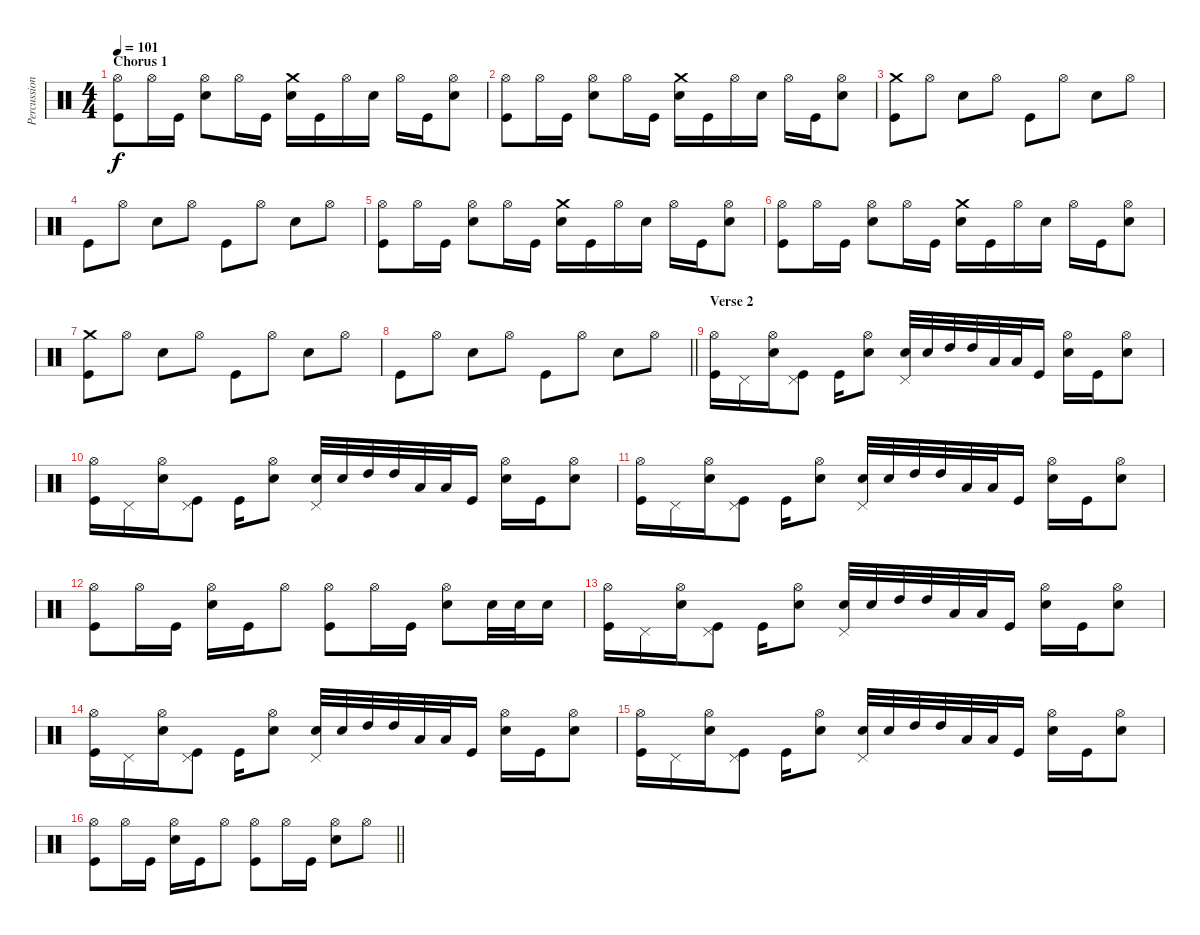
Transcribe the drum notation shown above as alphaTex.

\track ("Percussion" "Percussion") {instrument percussion}
\staff {score}
\articulation defaults
\ts (4 4)
\section ("" "Chorus 1")
\tempo 101
\clef neutral
\ks c
("Hi-Hat (open)" "Kick (hit)").8{dy f} "Hi-Hat (open)".16 "Kick (hit)".16 ("Hi-Hat (open)" "Snare (hit) 2").8 "Hi-Hat (open)".16 "Kick (hit)".16 ("Crash medium (hit)" "Snare (hit) 2").16 "Kick (hit)".16 "Hi-Hat (open)".16 "Snare (hit) 2".16 "Hi-Hat (open)".16 "Kick (hit)".16 ("Hi-Hat (open)" "Snare (hit) 2").8 |
("Hi-Hat (open)" "Kick (hit)").8 "Hi-Hat (open)".16 "Kick (hit)".16 ("Hi-Hat (open)" "Snare (hit) 2").8 "Hi-Hat (open)".16 "Kick (hit)".16 ("Crash medium (hit)" "Snare (hit) 2").16 "Kick (hit)".16 "Hi-Hat (open)".16 "Snare (hit) 2".16 "Hi-Hat (open)".16 "Kick (hit)".16 ("Hi-Hat (open)" "Snare (hit) 2").8 |
("Crash medium (hit)" "Kick (hit)").8 "Hi-Hat (open)".8 "Snare (hit) 2".8 "Hi-Hat (open)".8 "Kick (hit)".8 "Hi-Hat (open)".8 "Snare (hit) 2".8 "Hi-Hat (open)".8 |
"Kick (hit)".8 "Hi-Hat (open)".8 "Snare (hit) 2".8 "Hi-Hat (open)".8 "Kick (hit)".8 "Hi-Hat (open)".8 "Snare (hit) 2".8 "Hi-Hat (open)".8 |
("Hi-Hat (open)" "Kick (hit)").8 "Hi-Hat (open)".16 "Kick (hit)".16 ("Hi-Hat (open)" "Snare (hit) 2").8 "Hi-Hat (open)".16 "Kick (hit)".16 ("Crash medium (hit)" "Snare (hit) 2").16 "Kick (hit)".16 "Hi-Hat (open)".16 "Snare (hit) 2".16 "Hi-Hat (open)".16 "Kick (hit)".16 ("Hi-Hat (open)" "Snare (hit) 2").8 |
("Hi-Hat (open)" "Kick (hit)").8 "Hi-Hat (open)".16 "Kick (hit)".16 ("Hi-Hat (open)" "Snare (hit) 2").8 "Hi-Hat (open)".16 "Kick (hit)".16 ("Crash medium (hit)" "Snare (hit) 2").16 "Kick (hit)".16 "Hi-Hat (open)".16 "Snare (hit) 2".16 "Hi-Hat (open)".16 "Kick (hit)".16 ("Hi-Hat (open)" "Snare (hit) 2").8 |
("Crash medium (hit)" "Kick (hit)").8 "Hi-Hat (open)".8 "Snare (hit) 2".8 "Hi-Hat (open)".8 "Kick (hit)".8 "Hi-Hat (open)".8 "Snare (hit) 2".8 "Hi-Hat (open)".8 |
\barLineRight lightlight "Kick (hit)".8 "Hi-Hat (open)".8 "Snare (hit) 2".8 "Hi-Hat (open)".8 "Kick (hit)".8 "Hi-Hat (open)".8 "Snare (hit) 2".8 "Hi-Hat (open)".8
|
\section ("" "Verse 2")
("Hi-Hat (open)" "Kick (hit)").16 "Pedal Hi-Hat (hit)".16 ("Hi-Hat (open)" "Snare (hit) 2").16 ("Pedal Hi-Hat (hit)" "Kick (hit)").8 "Kick (hit)".16 ("Hi-Hat (open)" "Snare (hit) 2").8 ("Pedal Hi-Hat (hit)" "Snare (hit) 2").32 "Snare (hit) 2".32 "High Tom (hit)".32 "High Tom (hit)".32 "Low Tom (hit)".32 "Low Tom (hit)".32 "Kick (hit)".16 ("Hi-Hat (open)" "Snare (hit) 2").16 "Kick (hit)".16 ("Hi-Hat (open)" "Snare (hit) 2").8 |
("Hi-Hat (open)" "Kick (hit)").16 "Pedal Hi-Hat (hit)".16 ("Hi-Hat (open)" "Snare (hit) 2").16 ("Pedal Hi-Hat (hit)" "Kick (hit)").8 "Kick (hit)".16 ("Hi-Hat (open)" "Snare (hit) 2").8 ("Pedal Hi-Hat (hit)" "Snare (hit) 2").32 "Snare (hit) 2".32 "High Tom (hit)".32 "High Tom (hit)".32 "Low Tom (hit)".32 "Low Tom (hit)".32 "Kick (hit)".16 ("Hi-Hat (open)" "Snare (hit) 2").16 "Kick (hit)".16 ("Hi-Hat (open)" "Snare (hit) 2").8 |
("Hi-Hat (open)" "Kick (hit)").16 "Pedal Hi-Hat (hit)".16 ("Hi-Hat (open)" "Snare (hit) 2").16 ("Pedal Hi-Hat (hit)" "Kick (hit)").8 "Kick (hit)".16 ("Hi-Hat (open)" "Snare (hit) 2").8 ("Pedal Hi-Hat (hit)" "Snare (hit) 2").32 "Snare (hit) 2".32 "High Tom (hit)".32 "High Tom (hit)".32 "Low Tom (hit)".32 "Low Tom (hit)".32 "Kick (hit)".16 ("Hi-Hat (open)" "Snare (hit) 2").16 "Kick (hit)".16 ("Hi-Hat (open)" "Snare (hit) 2").8 |
("Hi-Hat (open)" "Kick (hit)").8 "Hi-Hat (open)".16 "Kick (hit)".16 ("Hi-Hat (open)" "Snare (hit) 2").16 "Kick (hit)".16 "Hi-Hat (open)".8 ("Hi-Hat (open)" "Kick (hit)").8 "Hi-Hat (open)".16 "Kick (hit)".16 ("Hi-Hat (open)" "Snare (hit) 2").8 "Snare (hit) 2".32 "Snare (hit) 2".32 "Snare (hit) 2".16 |
("Hi-Hat (open)" "Kick (hit)").16 "Pedal Hi-Hat (hit)".16 ("Hi-Hat (open)" "Snare (hit) 2").16 ("Pedal Hi-Hat (hit)" "Kick (hit)").8 "Kick (hit)".16 ("Hi-Hat (open)" "Snare (hit) 2").8 ("Pedal Hi-Hat (hit)" "Snare (hit) 2").32 "Snare (hit) 2".32 "High Tom (hit)".32 "High Tom (hit)".32 "Low Tom (hit)".32 "Low Tom (hit)".32 "Kick (hit)".16 ("Hi-Hat (open)" "Snare (hit) 2").16 "Kick (hit)".16 ("Hi-Hat (open)" "Snare (hit) 2").8 |
("Hi-Hat (open)" "Kick (hit)").16 "Pedal Hi-Hat (hit)".16 ("Hi-Hat (open)" "Snare (hit) 2").16 ("Pedal Hi-Hat (hit)" "Kick (hit)").8 "Kick (hit)".16 ("Hi-Hat (open)" "Snare (hit) 2").8 ("Pedal Hi-Hat (hit)" "Snare (hit) 2").32 "Snare (hit) 2".32 "High Tom (hit)".32 "High Tom (hit)".32 "Low Tom (hit)".32 "Low Tom (hit)".32 "Kick (hit)".16 ("Hi-Hat (open)" "Snare (hit) 2").16 "Kick (hit)".16 ("Hi-Hat (open)" "Snare (hit) 2").8 |
("Hi-Hat (open)" "Kick (hit)").16 "Pedal Hi-Hat (hit)".16 ("Hi-Hat (open)" "Snare (hit) 2").16 ("Pedal Hi-Hat (hit)" "Kick (hit)").8 "Kick (hit)".16 ("Hi-Hat (open)" "Snare (hit) 2").8 ("Pedal Hi-Hat (hit)" "Snare (hit) 2").32 "Snare (hit) 2".32 "High Tom (hit)".32 "High Tom (hit)".32 "Low Tom (hit)".32 "Low Tom (hit)".32 "Kick (hit)".16 ("Hi-Hat (open)" "Snare (hit) 2").16 "Kick (hit)".16 ("Hi-Hat (open)" "Snare (hit) 2").8 |
\barLineRight lightlight
("Hi-Hat (open)" "Kick (hit)").8 "Hi-Hat (open)".16 "Kick (hit)".16 ("Hi-Hat (open)" "Snare (hit) 2").16 "Kick (hit)".16 "Hi-Hat (open)".8 ("Hi-Hat (open)" "Kick (hit)").8 "Hi-Hat (open)".16 "Kick (hit)".16 ("Hi-Hat (open)" "Snare (hit) 2").8 "Hi-Hat (open)".8
